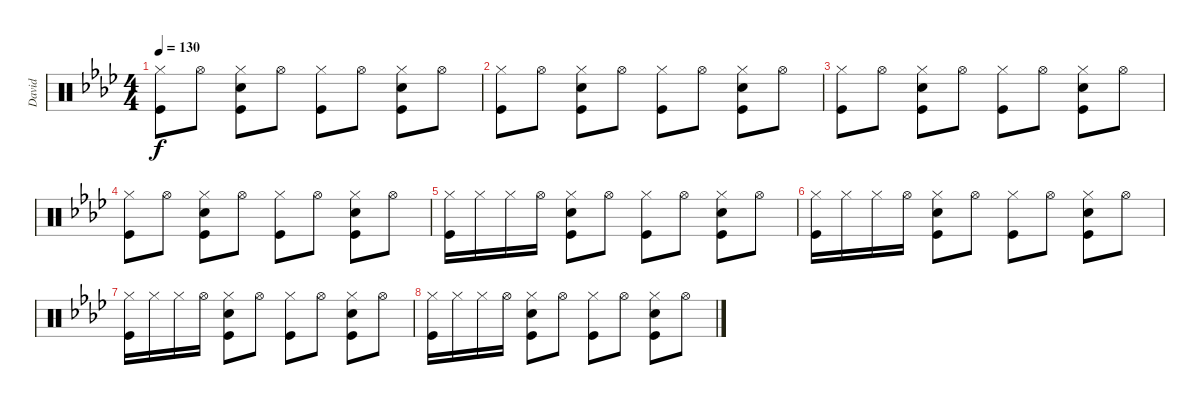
\track ("David" "David") {instrument percussion}
\staff {score}
\articulation defaults
\ts (4 4)
\tempo 130
\clef neutral
\ks ab
("Hi-Hat (closed)" "Kick (hit)").8{dy f} "Hi-Hat (open)".8 ("Hi-Hat (closed)" "Snare (hit) 2" "Kick (hit)").8 "Hi-Hat (open)".8 ("Hi-Hat (closed)" "Kick (hit)").8 "Hi-Hat (open)".8 ("Hi-Hat (closed)" "Snare (hit) 2" "Kick (hit)").8 "Hi-Hat (open)".8 |
("Hi-Hat (closed)" "Kick (hit)").8 "Hi-Hat (open)".8 ("Hi-Hat (closed)" "Snare (hit) 2" "Kick (hit)").8 "Hi-Hat (open)".8 ("Hi-Hat (closed)" "Kick (hit)").8 "Hi-Hat (open)".8 ("Hi-Hat (closed)" "Snare (hit) 2" "Kick (hit)").8 "Hi-Hat (open)".8 |
("Hi-Hat (closed)" "Kick (hit)").8 "Hi-Hat (open)".8 ("Hi-Hat (closed)" "Snare (hit) 2" "Kick (hit)").8 "Hi-Hat (open)".8 ("Hi-Hat (closed)" "Kick (hit)").8 "Hi-Hat (open)".8 ("Hi-Hat (closed)" "Snare (hit) 2" "Kick (hit)").8 "Hi-Hat (open)".8 |
("Hi-Hat (closed)" "Kick (hit)").8 "Hi-Hat (open)".8 ("Hi-Hat (closed)" "Snare (hit) 2" "Kick (hit)").8 "Hi-Hat (open)".8 ("Hi-Hat (closed)" "Kick (hit)").8 "Hi-Hat (open)".8 ("Hi-Hat (closed)" "Snare (hit) 2" "Kick (hit)").8 "Hi-Hat (open)".8 |
("Hi-Hat (closed)" "Kick (hit)").16 "Hi-Hat (closed)".16 "Hi-Hat (closed)".16 "Hi-Hat (open)".16 ("Hi-Hat (closed)" "Snare (hit) 2" "Kick (hit)").8 "Hi-Hat (open)".8 ("Hi-Hat (closed)" "Kick (hit)").8 "Hi-Hat (open)".8 ("Hi-Hat (closed)" "Snare (hit) 2" "Kick (hit)").8 "Hi-Hat (open)".8 |
("Hi-Hat (closed)" "Kick (hit)").16 "Hi-Hat (closed)".16 "Hi-Hat (closed)".16 "Hi-Hat (open)".16 ("Hi-Hat (closed)" "Snare (hit) 2" "Kick (hit)").8 "Hi-Hat (open)".8 ("Hi-Hat (closed)" "Kick (hit)").8 "Hi-Hat (open)".8 ("Hi-Hat (closed)" "Snare (hit) 2" "Kick (hit)").8 "Hi-Hat (open)".8 |
("Hi-Hat (closed)" "Kick (hit)").16 "Hi-Hat (closed)".16 "Hi-Hat (closed)".16 "Hi-Hat (open)".16 ("Hi-Hat (closed)" "Snare (hit) 2" "Kick (hit)").8 "Hi-Hat (open)".8 ("Hi-Hat (closed)" "Kick (hit)").8 "Hi-Hat (open)".8 ("Hi-Hat (closed)" "Snare (hit) 2" "Kick (hit)").8 "Hi-Hat (open)".8 |
("Hi-Hat (closed)" "Kick (hit)").16 "Hi-Hat (closed)".16 "Hi-Hat (closed)".16 "Hi-Hat (open)".16 ("Hi-Hat (closed)" "Snare (hit) 2" "Kick (hit)").8 "Hi-Hat (open)".8 ("Hi-Hat (closed)" "Kick (hit)").8 "Hi-Hat (open)".8 ("Hi-Hat (closed)" "Snare (hit) 2" "Kick (hit)").8 "Hi-Hat (open)".8
